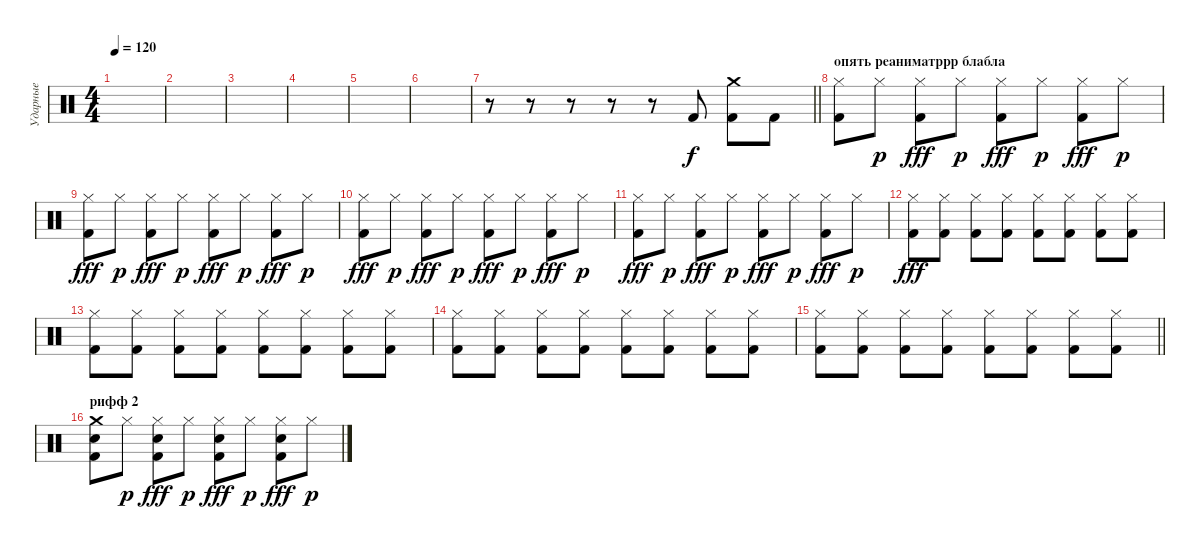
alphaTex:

\track ("Ударные" "Ударные") {instrument percussion}
\staff {score}
\articulation defaults
\ts (4 4)
\tempo 120
\clef neutral
\ks c
|
|
|
|
|
|
\barLineRight lightlight
r.8 r.8 r.8 r.8 r.8 "Kick (hit) 2".8 ("Crash medium (hit)" "Kick (hit) 2").8 "Kick (hit) 2".8 |
\section ("" "опять реаниматррр блабла")
("Hi-Hat (closed)" "Kick (hit) 2").8 "Hi-Hat (closed)".8{dy p} ("Hi-Hat (closed)" "Kick (hit) 2").8{dy fff} "Hi-Hat (closed)".8{dy p} ("Hi-Hat (closed)" "Kick (hit) 2").8{dy fff} "Hi-Hat (closed)".8{dy p} ("Hi-Hat (closed)" "Kick (hit) 2").8{dy fff} "Hi-Hat (closed)".8{dy p} |
("Hi-Hat (closed)" "Kick (hit) 2").8{dy fff} "Hi-Hat (closed)".8{dy p} ("Hi-Hat (closed)" "Kick (hit) 2").8{dy fff} "Hi-Hat (closed)".8{dy p} ("Hi-Hat (closed)" "Kick (hit) 2").8{dy fff} "Hi-Hat (closed)".8{dy p} ("Hi-Hat (closed)" "Kick (hit) 2").8{dy fff} "Hi-Hat (closed)".8{dy p} |
("Hi-Hat (closed)" "Kick (hit) 2").8{dy fff} "Hi-Hat (closed)".8{dy p} ("Hi-Hat (closed)" "Kick (hit) 2").8{dy fff} "Hi-Hat (closed)".8{dy p} ("Hi-Hat (closed)" "Kick (hit) 2").8{dy fff} "Hi-Hat (closed)".8{dy p} ("Hi-Hat (closed)" "Kick (hit) 2").8{dy fff} "Hi-Hat (closed)".8{dy p} |
("Hi-Hat (closed)" "Kick (hit) 2").8{dy fff} "Hi-Hat (closed)".8{dy p} ("Hi-Hat (closed)" "Kick (hit) 2").8{dy fff} "Hi-Hat (closed)".8{dy p} ("Hi-Hat (closed)" "Kick (hit) 2").8{dy fff} "Hi-Hat (closed)".8{dy p} ("Hi-Hat (closed)" "Kick (hit) 2").8{dy fff} "Hi-Hat (closed)".8{dy p} |
("Hi-Hat (closed)" "Kick (hit) 2").8{dy fff} ("Hi-Hat (closed)" "Kick (hit) 2").8 ("Hi-Hat (closed)" "Kick (hit) 2").8 ("Hi-Hat (closed)" "Kick (hit) 2").8 ("Hi-Hat (closed)" "Kick (hit) 2").8 ("Hi-Hat (closed)" "Kick (hit) 2").8 ("Hi-Hat (closed)" "Kick (hit) 2").8 ("Hi-Hat (closed)" "Kick (hit) 2").8 |
("Hi-Hat (closed)" "Kick (hit) 2").8 ("Hi-Hat (closed)" "Kick (hit) 2").8 ("Hi-Hat (closed)" "Kick (hit) 2").8 ("Hi-Hat (closed)" "Kick (hit) 2").8 ("Hi-Hat (closed)" "Kick (hit) 2").8 ("Hi-Hat (closed)" "Kick (hit) 2").8 ("Hi-Hat (closed)" "Kick (hit) 2").8 ("Hi-Hat (closed)" "Kick (hit) 2").8 |
("Hi-Hat (closed)" "Kick (hit) 2").8 ("Hi-Hat (closed)" "Kick (hit) 2").8 ("Hi-Hat (closed)" "Kick (hit) 2").8 ("Hi-Hat (closed)" "Kick (hit) 2").8 ("Hi-Hat (closed)" "Kick (hit) 2").8 ("Hi-Hat (closed)" "Kick (hit) 2").8 ("Hi-Hat (closed)" "Kick (hit) 2").8 ("Hi-Hat (closed)" "Kick (hit) 2").8 |
\barLineRight lightlight
("Hi-Hat (closed)" "Kick (hit) 2").8 ("Hi-Hat (closed)" "Kick (hit) 2").8 ("Hi-Hat (closed)" "Kick (hit) 2").8 ("Hi-Hat (closed)" "Kick (hit) 2").8 ("Hi-Hat (closed)" "Kick (hit) 2").8 ("Hi-Hat (closed)" "Kick (hit) 2").8 ("Hi-Hat (closed)" "Kick (hit) 2").8 ("Hi-Hat (closed)" "Kick (hit) 2").8 |
\section ("" "рифф 2")
("Crash medium (hit)" "Snare (hit) 2" "Kick (hit) 2").8 "Hi-Hat (closed)".8{dy p} ("Hi-Hat (closed)" "Snare (hit) 2" "Kick (hit) 2").8{dy fff} "Hi-Hat (closed)".8{dy p} ("Hi-Hat (closed)" "Snare (hit) 2" "Kick (hit) 2").8{dy fff} "Hi-Hat (closed)".8{dy p} ("Hi-Hat (closed)" "Snare (hit) 2" "Kick (hit) 2").8{dy fff} "Hi-Hat (closed)".8{dy p}
